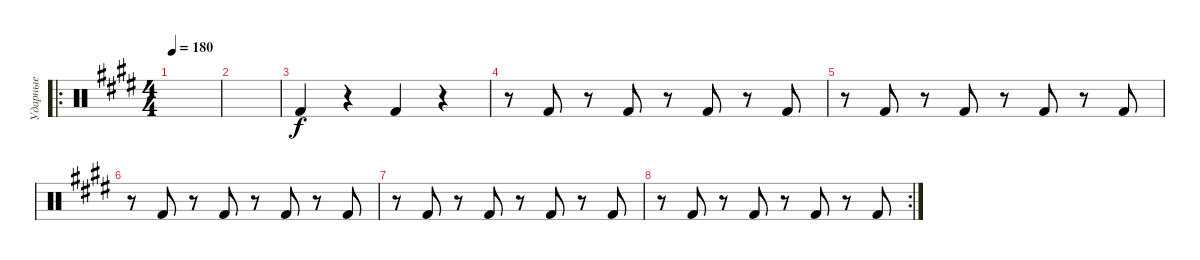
\track ("Ударные" "Ударные") {instrument percussion}
\staff {score}
\articulation defaults
\ro
\ts (4 4)
\tempo 180
\clef neutral
\ks e
|
|
"Kick (hit) 2".4 r.4 "Kick (hit) 2".4 r.4 |
r.8 "Kick (hit) 2".8 r.8 "Kick (hit) 2".8 r.8 "Kick (hit) 2".8 r.8 "Kick (hit) 2".8 |
r.8 "Kick (hit) 2".8 r.8 "Kick (hit) 2".8 r.8 "Kick (hit) 2".8 r.8 "Kick (hit) 2".8 |
r.8 "Kick (hit) 2".8 r.8 "Kick (hit) 2".8 r.8 "Kick (hit) 2".8 r.8 "Kick (hit) 2".8 |
r.8 "Kick (hit) 2".8 r.8 "Kick (hit) 2".8 r.8 "Kick (hit) 2".8 r.8 "Kick (hit) 2".8 |
\rc 2
r.8 "Kick (hit) 2".8 r.8 "Kick (hit) 2".8 r.8 "Kick (hit) 2".8 r.8 "Kick (hit) 2".8
